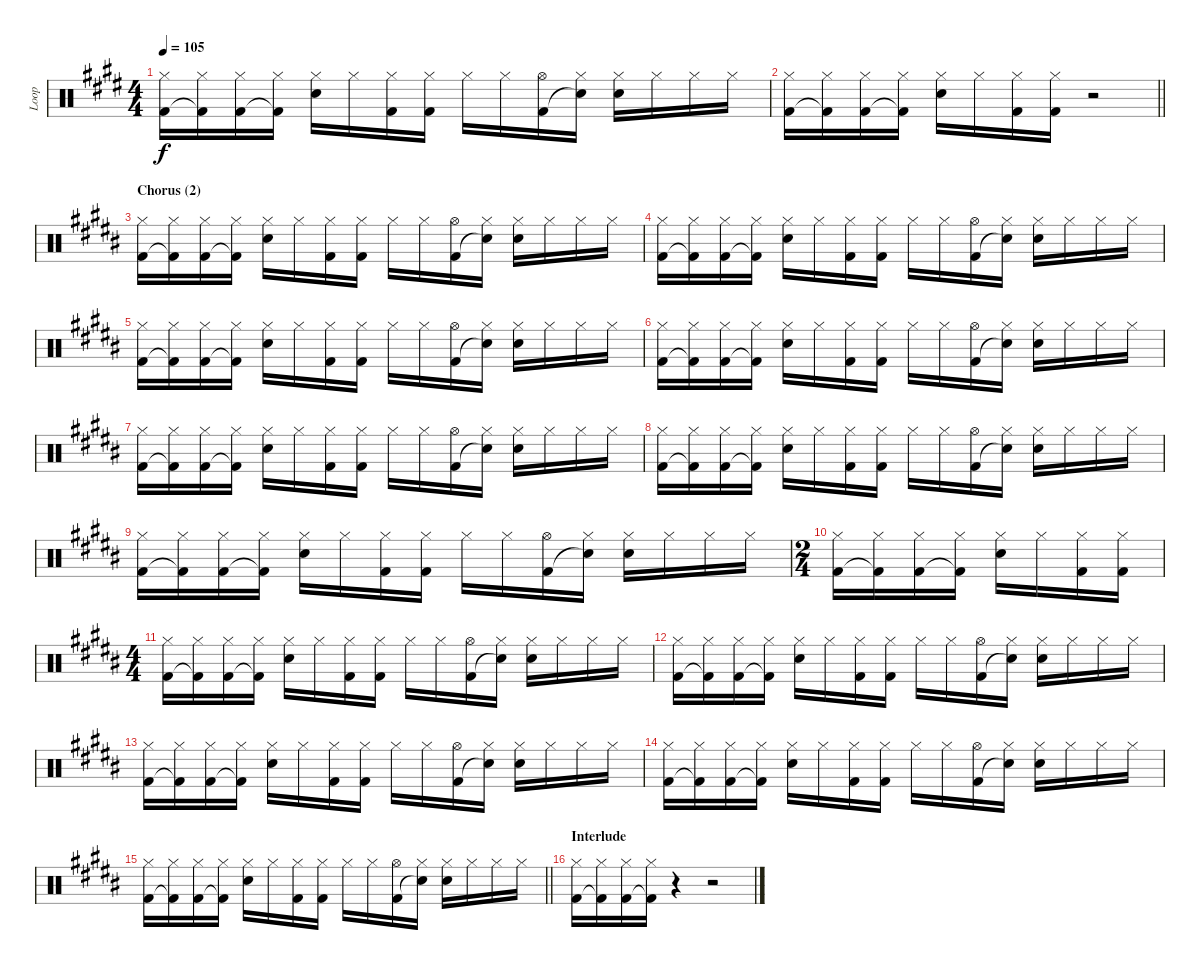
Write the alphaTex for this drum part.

\track ("Loop" "Loop") {instrument percussion}
\staff {score}
\articulation defaults
\ts (4 4)
\tempo 105
\clef neutral
\ks e
("Hi-Hat (closed)" "Kick (hit) 2").16{dy f} ("Hi-Hat (closed)" "Kick (hit) 2"{t}).16 ("Hi-Hat (closed)" "Kick (hit) 2").16 ("Hi-Hat (closed)" "Kick (hit) 2"{t}).16 ("Hi-Hat (closed)" "Electric Snare (hit)").16 "Hi-Hat (closed)".16 ("Hi-Hat (closed)" "Kick (hit) 2").16 ("Hi-Hat (closed)" "Kick (hit) 2").16 "Hi-Hat (closed)".16 "Hi-Hat (closed)".16 ("Hi-Hat (open)" "Kick (hit) 2").16 ("Hi-Hat (closed)" "Snare (hit)"{t}).16 ("Hi-Hat (closed)" "Electric Snare (hit)").16 "Hi-Hat (closed)".16 "Hi-Hat (closed)".16 "Hi-Hat (closed)".16 |
\barLineRight lightlight
("Hi-Hat (closed)" "Kick (hit) 2").16 ("Hi-Hat (closed)" "Kick (hit) 2"{t}).16 ("Hi-Hat (closed)" "Kick (hit) 2").16 ("Hi-Hat (closed)" "Kick (hit) 2"{t}).16 ("Hi-Hat (closed)" "Electric Snare (hit)").16 "Hi-Hat (closed)".16 ("Hi-Hat (closed)" "Kick (hit) 2").16 ("Hi-Hat (closed)" "Kick (hit) 2").16 r.2 |
\section ("" "Chorus (2)")
\ks g#minor
("Hi-Hat (closed)" "Kick (hit) 2").16 ("Hi-Hat (closed)" "Kick (hit) 2"{t}).16 ("Hi-Hat (closed)" "Kick (hit) 2").16 ("Hi-Hat (closed)" "Kick (hit) 2"{t}).16 ("Hi-Hat (closed)" "Electric Snare (hit)").16 "Hi-Hat (closed)".16 ("Hi-Hat (closed)" "Kick (hit) 2").16 ("Hi-Hat (closed)" "Kick (hit) 2").16 "Hi-Hat (closed)".16 "Hi-Hat (closed)".16 ("Hi-Hat (open)" "Kick (hit) 2").16 ("Hi-Hat (closed)" "Snare (hit)"{t}).16 ("Hi-Hat (closed)" "Electric Snare (hit)").16 "Hi-Hat (closed)".16 "Hi-Hat (closed)".16 "Hi-Hat (closed)".16 |
("Hi-Hat (closed)" "Kick (hit) 2").16 ("Hi-Hat (closed)" "Kick (hit) 2"{t}).16 ("Hi-Hat (closed)" "Kick (hit) 2").16 ("Hi-Hat (closed)" "Kick (hit) 2"{t}).16 ("Hi-Hat (closed)" "Electric Snare (hit)").16 "Hi-Hat (closed)".16 ("Hi-Hat (closed)" "Kick (hit) 2").16 ("Hi-Hat (closed)" "Kick (hit) 2").16 "Hi-Hat (closed)".16 "Hi-Hat (closed)".16 ("Hi-Hat (open)" "Kick (hit) 2").16 ("Hi-Hat (closed)" "Snare (hit)"{t}).16 ("Hi-Hat (closed)" "Electric Snare (hit)").16 "Hi-Hat (closed)".16 "Hi-Hat (closed)".16 "Hi-Hat (closed)".16 |
("Hi-Hat (closed)" "Kick (hit) 2").16 ("Hi-Hat (closed)" "Kick (hit) 2"{t}).16 ("Hi-Hat (closed)" "Kick (hit) 2").16 ("Hi-Hat (closed)" "Kick (hit) 2"{t}).16 ("Hi-Hat (closed)" "Electric Snare (hit)").16 "Hi-Hat (closed)".16 ("Hi-Hat (closed)" "Kick (hit) 2").16 ("Hi-Hat (closed)" "Kick (hit) 2").16 "Hi-Hat (closed)".16 "Hi-Hat (closed)".16 ("Hi-Hat (open)" "Kick (hit) 2").16 ("Hi-Hat (closed)" "Snare (hit)"{t}).16 ("Hi-Hat (closed)" "Electric Snare (hit)").16 "Hi-Hat (closed)".16 "Hi-Hat (closed)".16 "Hi-Hat (closed)".16 |
("Hi-Hat (closed)" "Kick (hit) 2").16 ("Hi-Hat (closed)" "Kick (hit) 2"{t}).16 ("Hi-Hat (closed)" "Kick (hit) 2").16 ("Hi-Hat (closed)" "Kick (hit) 2"{t}).16 ("Hi-Hat (closed)" "Electric Snare (hit)").16 "Hi-Hat (closed)".16 ("Hi-Hat (closed)" "Kick (hit) 2").16 ("Hi-Hat (closed)" "Kick (hit) 2").16 "Hi-Hat (closed)".16 "Hi-Hat (closed)".16 ("Hi-Hat (open)" "Kick (hit) 2").16 ("Hi-Hat (closed)" "Snare (hit)"{t}).16 ("Hi-Hat (closed)" "Electric Snare (hit)").16 "Hi-Hat (closed)".16 "Hi-Hat (closed)".16 "Hi-Hat (closed)".16 |
("Hi-Hat (closed)" "Kick (hit) 2").16 ("Hi-Hat (closed)" "Kick (hit) 2"{t}).16 ("Hi-Hat (closed)" "Kick (hit) 2").16 ("Hi-Hat (closed)" "Kick (hit) 2"{t}).16 ("Hi-Hat (closed)" "Electric Snare (hit)").16 "Hi-Hat (closed)".16 ("Hi-Hat (closed)" "Kick (hit) 2").16 ("Hi-Hat (closed)" "Kick (hit) 2").16 "Hi-Hat (closed)".16 "Hi-Hat (closed)".16 ("Hi-Hat (open)" "Kick (hit) 2").16 ("Hi-Hat (closed)" "Snare (hit)"{t}).16 ("Hi-Hat (closed)" "Electric Snare (hit)").16 "Hi-Hat (closed)".16 "Hi-Hat (closed)".16 "Hi-Hat (closed)".16 |
("Hi-Hat (closed)" "Kick (hit) 2").16 ("Hi-Hat (closed)" "Kick (hit) 2"{t}).16 ("Hi-Hat (closed)" "Kick (hit) 2").16 ("Hi-Hat (closed)" "Kick (hit) 2"{t}).16 ("Hi-Hat (closed)" "Electric Snare (hit)").16 "Hi-Hat (closed)".16 ("Hi-Hat (closed)" "Kick (hit) 2").16 ("Hi-Hat (closed)" "Kick (hit) 2").16 "Hi-Hat (closed)".16 "Hi-Hat (closed)".16 ("Hi-Hat (open)" "Kick (hit) 2").16 ("Hi-Hat (closed)" "Snare (hit)"{t}).16 ("Hi-Hat (closed)" "Electric Snare (hit)").16 "Hi-Hat (closed)".16 "Hi-Hat (closed)".16 "Hi-Hat (closed)".16 |
("Hi-Hat (closed)" "Kick (hit) 2").16 ("Hi-Hat (closed)" "Kick (hit) 2"{t}).16 ("Hi-Hat (closed)" "Kick (hit) 2").16 ("Hi-Hat (closed)" "Kick (hit) 2"{t}).16 ("Hi-Hat (closed)" "Electric Snare (hit)").16 "Hi-Hat (closed)".16 ("Hi-Hat (closed)" "Kick (hit) 2").16 ("Hi-Hat (closed)" "Kick (hit) 2").16 "Hi-Hat (closed)".16 "Hi-Hat (closed)".16 ("Hi-Hat (open)" "Kick (hit) 2").16 ("Hi-Hat (closed)" "Snare (hit)"{t}).16 ("Hi-Hat (closed)" "Electric Snare (hit)").16 "Hi-Hat (closed)".16 "Hi-Hat (closed)".16 "Hi-Hat (closed)".16 |
\ts (2 4)
("Hi-Hat (closed)" "Kick (hit) 2").16 ("Hi-Hat (closed)" "Kick (hit) 2"{t}).16 ("Hi-Hat (closed)" "Kick (hit) 2").16 ("Hi-Hat (closed)" "Kick (hit) 2"{t}).16 ("Hi-Hat (closed)" "Electric Snare (hit)").16 "Hi-Hat (closed)".16 ("Hi-Hat (closed)" "Kick (hit) 2").16 ("Hi-Hat (closed)" "Kick (hit) 2").16 |
\ts (4 4)
("Hi-Hat (closed)" "Kick (hit) 2").16 ("Hi-Hat (closed)" "Kick (hit) 2"{t}).16 ("Hi-Hat (closed)" "Kick (hit) 2").16 ("Hi-Hat (closed)" "Kick (hit) 2"{t}).16 ("Hi-Hat (closed)" "Electric Snare (hit)").16 "Hi-Hat (closed)".16 ("Hi-Hat (closed)" "Kick (hit) 2").16 ("Hi-Hat (closed)" "Kick (hit) 2").16 "Hi-Hat (closed)".16 "Hi-Hat (closed)".16 ("Hi-Hat (open)" "Kick (hit) 2").16 ("Hi-Hat (closed)" "Snare (hit)"{t}).16 ("Hi-Hat (closed)" "Electric Snare (hit)").16 "Hi-Hat (closed)".16 "Hi-Hat (closed)".16 "Hi-Hat (closed)".16 |
("Hi-Hat (closed)" "Kick (hit) 2").16 ("Hi-Hat (closed)" "Kick (hit) 2"{t}).16 ("Hi-Hat (closed)" "Kick (hit) 2").16 ("Hi-Hat (closed)" "Kick (hit) 2"{t}).16 ("Hi-Hat (closed)" "Electric Snare (hit)").16 "Hi-Hat (closed)".16 ("Hi-Hat (closed)" "Kick (hit) 2").16 ("Hi-Hat (closed)" "Kick (hit) 2").16 "Hi-Hat (closed)".16 "Hi-Hat (closed)".16 ("Hi-Hat (open)" "Kick (hit) 2").16 ("Hi-Hat (closed)" "Snare (hit)"{t}).16 ("Hi-Hat (closed)" "Electric Snare (hit)").16 "Hi-Hat (closed)".16 "Hi-Hat (closed)".16 "Hi-Hat (closed)".16 |
("Hi-Hat (closed)" "Kick (hit) 2").16 ("Hi-Hat (closed)" "Kick (hit) 2"{t}).16 ("Hi-Hat (closed)" "Kick (hit) 2").16 ("Hi-Hat (closed)" "Kick (hit) 2"{t}).16 ("Hi-Hat (closed)" "Electric Snare (hit)").16 "Hi-Hat (closed)".16 ("Hi-Hat (closed)" "Kick (hit) 2").16 ("Hi-Hat (closed)" "Kick (hit) 2").16 "Hi-Hat (closed)".16 "Hi-Hat (closed)".16 ("Hi-Hat (open)" "Kick (hit) 2").16 ("Hi-Hat (closed)" "Snare (hit)"{t}).16 ("Hi-Hat (closed)" "Electric Snare (hit)").16 "Hi-Hat (closed)".16 "Hi-Hat (closed)".16 "Hi-Hat (closed)".16 |
("Hi-Hat (closed)" "Kick (hit) 2").16 ("Hi-Hat (closed)" "Kick (hit) 2"{t}).16 ("Hi-Hat (closed)" "Kick (hit) 2").16 ("Hi-Hat (closed)" "Kick (hit) 2"{t}).16 ("Hi-Hat (closed)" "Electric Snare (hit)").16 "Hi-Hat (closed)".16 ("Hi-Hat (closed)" "Kick (hit) 2").16 ("Hi-Hat (closed)" "Kick (hit) 2").16 "Hi-Hat (closed)".16 "Hi-Hat (closed)".16 ("Hi-Hat (open)" "Kick (hit) 2").16 ("Hi-Hat (closed)" "Snare (hit)"{t}).16 ("Hi-Hat (closed)" "Electric Snare (hit)").16 "Hi-Hat (closed)".16 "Hi-Hat (closed)".16 "Hi-Hat (closed)".16 |
\barLineRight lightlight
("Hi-Hat (closed)" "Kick (hit) 2").16 ("Hi-Hat (closed)" "Kick (hit) 2"{t}).16 ("Hi-Hat (closed)" "Kick (hit) 2").16 ("Hi-Hat (closed)" "Kick (hit) 2"{t}).16 ("Hi-Hat (closed)" "Electric Snare (hit)").16 "Hi-Hat (closed)".16 ("Hi-Hat (closed)" "Kick (hit) 2").16 ("Hi-Hat (closed)" "Kick (hit) 2").16 "Hi-Hat (closed)".16 "Hi-Hat (closed)".16 ("Hi-Hat (open)" "Kick (hit) 2").16 ("Hi-Hat (closed)" "Snare (hit)"{t}).16 ("Hi-Hat (closed)" "Electric Snare (hit)").16 "Hi-Hat (closed)".16 "Hi-Hat (closed)".16 "Hi-Hat (closed)".16 |
\section ("" "Interlude")
("Hi-Hat (closed)" "Kick (hit) 2").16 ("Hi-Hat (closed)" "Kick (hit) 2"{t}).16 ("Hi-Hat (closed)" "Kick (hit) 2").16 ("Hi-Hat (closed)" "Kick (hit) 2"{t}).16 r.4 r.2
